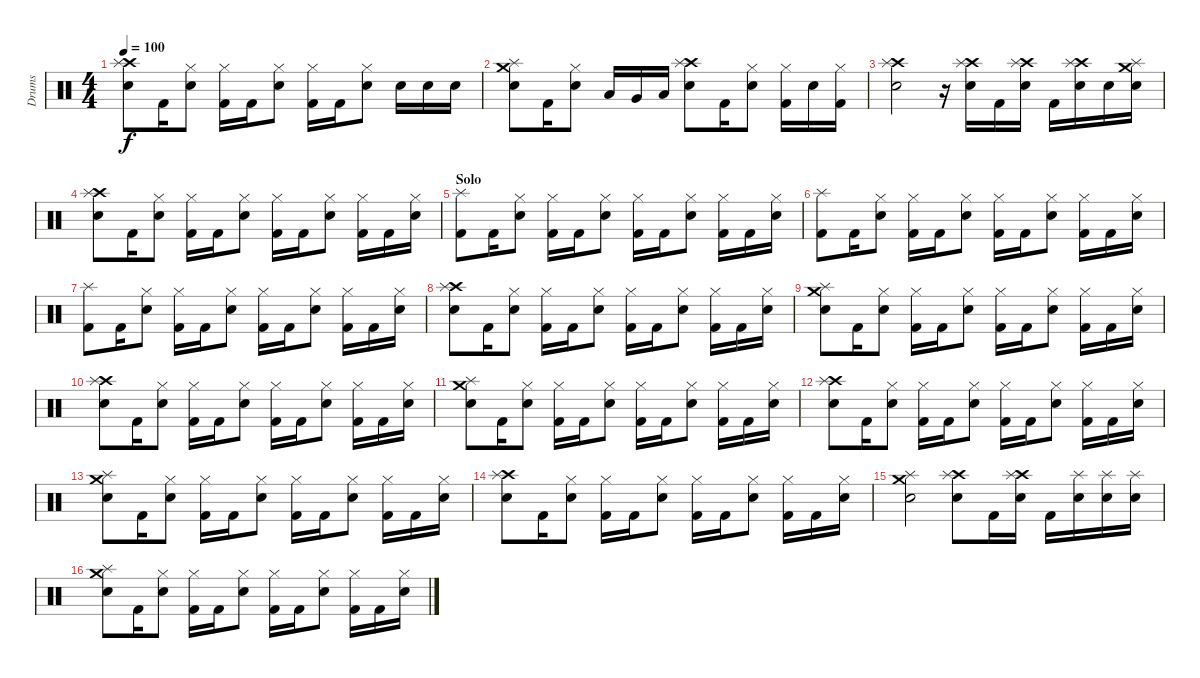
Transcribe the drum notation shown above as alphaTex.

\track ("Drums" "Drums") {instrument percussion}
\staff {score}
\articulation defaults
\ts (4 4)
\tempo 100
\clef neutral
\ks c
("Crash high (hit)" "Splash (hit)" "Snare (hit) 2").8{dy f} "Kick (hit) 2".16 ("Hi-Hat (closed)" "Snare (hit) 2").8 ("Hi-Hat (closed)" "Kick (hit) 2").16 "Kick (hit) 2".16 ("Hi-Hat (closed)" "Snare (hit) 2").8 ("Hi-Hat (closed)" "Kick (hit) 2").16 "Kick (hit) 2".16 ("Hi-Hat (closed)" "Snare (hit) 2").8 "Snare (hit) 2".16 "Snare (hit) 2".16 "Snare (hit) 2".16 |
("Crash medium (hit)" "Splash (hit)" "Snare (hit) 2").8 "Kick (hit) 2".16 ("Hi-Hat (closed)" "Snare (hit) 2").8 "Low Tom (hit)".16 "Very Low Tom (hit)".16 "Low Floor Tom (hit)".16 ("Crash high (hit)" "Splash (hit)" "Snare (hit) 2").8 "Kick (hit) 2".16 ("Hi-Hat (closed)" "Snare (hit) 2").8 ("Hi-Hat (closed)" "Kick (hit) 2").16 "Snare (hit) 2".16 ("Hi-Hat (closed)" "Kick (hit) 2").16 |
("Crash high (hit)" "Splash (hit)" "Snare (hit) 2").2 r.16 ("Crash high (hit)" "Splash (hit)" "Snare (hit) 2").16 "Kick (hit) 2".16 ("Crash high (hit)" "Splash (hit)" "Snare (hit) 2").16 "Kick (hit) 2".16 ("Crash high (hit)" "Splash (hit)" "Snare (hit) 2").16 "Snare (hit) 2".16 ("Crash medium (hit)" "Splash (hit)" "Snare (hit) 2").16 |
("Crash high (hit)" "Splash (hit)" "Snare (hit) 2").8 "Kick (hit) 2".16 ("Hi-Hat (closed)" "Snare (hit) 2").8 ("Hi-Hat (closed)" "Kick (hit) 2").16 "Kick (hit) 2".16 ("Hi-Hat (closed)" "Snare (hit) 2").8 ("Hi-Hat (closed)" "Kick (hit) 2").16 "Kick (hit) 2".16 ("Hi-Hat (closed)" "Snare (hit) 2").8 ("Hi-Hat (closed)" "Kick (hit) 2").16 "Kick (hit) 2".16 ("Hi-Hat (closed)" "Snare (hit) 2").16 |
\section ("" "Solo")
("Splash (hit)" "Kick (hit) 2").8 "Kick (hit) 2".16 ("Hi-Hat (closed)" "Snare (hit) 2").8 ("Hi-Hat (closed)" "Kick (hit) 2").16 "Kick (hit) 2".16 ("Hi-Hat (closed)" "Snare (hit) 2").8 ("Hi-Hat (closed)" "Kick (hit) 2").16 "Kick (hit) 2".16 ("Hi-Hat (closed)" "Snare (hit) 2").8 ("Hi-Hat (closed)" "Kick (hit) 2").16 "Kick (hit) 2".16 ("Hi-Hat (closed)" "Snare (hit) 2").16 |
("Splash (hit)" "Kick (hit) 2").8 "Kick (hit) 2".16 ("Hi-Hat (closed)" "Snare (hit) 2").8 ("Hi-Hat (closed)" "Kick (hit) 2").16 "Kick (hit) 2".16 ("Hi-Hat (closed)" "Snare (hit) 2").8 ("Hi-Hat (closed)" "Kick (hit) 2").16 "Kick (hit) 2".16 ("Hi-Hat (closed)" "Snare (hit) 2").8 ("Hi-Hat (closed)" "Kick (hit) 2").16 "Kick (hit) 2".16 ("Hi-Hat (closed)" "Snare (hit) 2").16 |
("Splash (hit)" "Kick (hit) 2").8 "Kick (hit) 2".16 ("Hi-Hat (closed)" "Snare (hit) 2").8 ("Hi-Hat (closed)" "Kick (hit) 2").16 "Kick (hit) 2".16 ("Hi-Hat (closed)" "Snare (hit) 2").8 ("Hi-Hat (closed)" "Kick (hit) 2").16 "Kick (hit) 2".16 ("Hi-Hat (closed)" "Snare (hit) 2").8 ("Hi-Hat (closed)" "Kick (hit) 2").16 "Kick (hit) 2".16 ("Hi-Hat (closed)" "Snare (hit) 2").16 |
("Crash high (hit)" "Splash (hit)" "Snare (hit) 2").8 "Kick (hit) 2".16 ("Hi-Hat (closed)" "Snare (hit) 2").8 ("Hi-Hat (closed)" "Kick (hit) 2").16 "Kick (hit) 2".16 ("Hi-Hat (closed)" "Snare (hit) 2").8 ("Hi-Hat (closed)" "Kick (hit) 2").16 "Kick (hit) 2".16 ("Hi-Hat (closed)" "Snare (hit) 2").8 ("Hi-Hat (closed)" "Kick (hit) 2").16 "Kick (hit) 2".16 ("Hi-Hat (closed)" "Snare (hit) 2").16 |
("Crash medium (hit)" "Splash (hit)" "Snare (hit) 2").8 "Kick (hit) 2".16 ("Hi-Hat (closed)" "Snare (hit) 2").8 ("Hi-Hat (closed)" "Kick (hit) 2").16 "Kick (hit) 2".16 ("Hi-Hat (closed)" "Snare (hit) 2").8 ("Hi-Hat (closed)" "Kick (hit) 2").16 "Kick (hit) 2".16 ("Hi-Hat (closed)" "Snare (hit) 2").8 ("Hi-Hat (closed)" "Kick (hit) 2").16 "Kick (hit) 2".16 ("Hi-Hat (closed)" "Snare (hit) 2").16 |
("Crash high (hit)" "Splash (hit)" "Snare (hit) 2").8 "Kick (hit) 2".16 ("Hi-Hat (closed)" "Snare (hit) 2").8 ("Hi-Hat (closed)" "Kick (hit) 2").16 "Kick (hit) 2".16 ("Hi-Hat (closed)" "Snare (hit) 2").8 ("Hi-Hat (closed)" "Kick (hit) 2").16 "Kick (hit) 2".16 ("Hi-Hat (closed)" "Snare (hit) 2").8 ("Hi-Hat (closed)" "Kick (hit) 2").16 "Kick (hit) 2".16 ("Hi-Hat (closed)" "Snare (hit) 2").16 |
("Crash medium (hit)" "Splash (hit)" "Snare (hit) 2").8 "Kick (hit) 2".16 ("Hi-Hat (closed)" "Snare (hit) 2").8 ("Hi-Hat (closed)" "Kick (hit) 2").16 "Kick (hit) 2".16 ("Hi-Hat (closed)" "Snare (hit) 2").8 ("Hi-Hat (closed)" "Kick (hit) 2").16 "Kick (hit) 2".16 ("Hi-Hat (closed)" "Snare (hit) 2").8 ("Hi-Hat (closed)" "Kick (hit) 2").16 "Kick (hit) 2".16 ("Hi-Hat (closed)" "Snare (hit) 2").16 |
("Crash high (hit)" "Splash (hit)" "Snare (hit) 2").8 "Kick (hit) 2".16 ("Hi-Hat (closed)" "Snare (hit) 2").8 ("Hi-Hat (closed)" "Kick (hit) 2").16 "Kick (hit) 2".16 ("Hi-Hat (closed)" "Snare (hit) 2").8 ("Hi-Hat (closed)" "Kick (hit) 2").16 "Kick (hit) 2".16 ("Hi-Hat (closed)" "Snare (hit) 2").8 ("Hi-Hat (closed)" "Kick (hit) 2").16 "Kick (hit) 2".16 ("Hi-Hat (closed)" "Snare (hit) 2").16 |
("Crash medium (hit)" "Splash (hit)" "Snare (hit) 2").8 "Kick (hit) 2".16 ("Hi-Hat (closed)" "Snare (hit) 2").8 ("Hi-Hat (closed)" "Kick (hit) 2").16 "Kick (hit) 2".16 ("Hi-Hat (closed)" "Snare (hit) 2").8 ("Hi-Hat (closed)" "Kick (hit) 2").16 "Kick (hit) 2".16 ("Hi-Hat (closed)" "Snare (hit) 2").8 ("Hi-Hat (closed)" "Kick (hit) 2").16 "Kick (hit) 2".16 ("Hi-Hat (closed)" "Snare (hit) 2").16 |
("Crash high (hit)" "Splash (hit)" "Snare (hit) 2").8 "Kick (hit) 2".16 ("Hi-Hat (closed)" "Snare (hit) 2").8 ("Hi-Hat (closed)" "Kick (hit) 2").16 "Kick (hit) 2".16 ("Hi-Hat (closed)" "Snare (hit) 2").8 ("Hi-Hat (closed)" "Kick (hit) 2").16 "Kick (hit) 2".16 ("Hi-Hat (closed)" "Snare (hit) 2").8 ("Hi-Hat (closed)" "Kick (hit) 2").16 "Kick (hit) 2".16 ("Hi-Hat (closed)" "Snare (hit) 2").16 |
("Crash medium (hit)" "Splash (hit)" "Snare (hit) 2").2 ("Crash high (hit)" "Splash (hit)" "Snare (hit) 2").8 "Kick (hit) 2".16 ("Crash high (hit)" "Splash (hit)" "Snare (hit) 2").16 "Kick (hit) 2".16 ("Splash (hit)" "Snare (hit) 2").16 ("Splash (hit)" "Snare (hit) 2").16 ("Splash (hit)" "Snare (hit) 2").16 |
("Crash medium (hit)" "Splash (hit)" "Snare (hit) 2").8 "Kick (hit) 2".16 ("Hi-Hat (closed)" "Snare (hit) 2").8 ("Hi-Hat (closed)" "Kick (hit) 2").16 "Kick (hit) 2".16 ("Hi-Hat (closed)" "Snare (hit) 2").8 ("Hi-Hat (closed)" "Kick (hit) 2").16 "Kick (hit) 2".16 ("Hi-Hat (closed)" "Snare (hit) 2").8 ("Hi-Hat (closed)" "Kick (hit) 2").16 "Kick (hit) 2".16 ("Hi-Hat (closed)" "Snare (hit) 2").16
